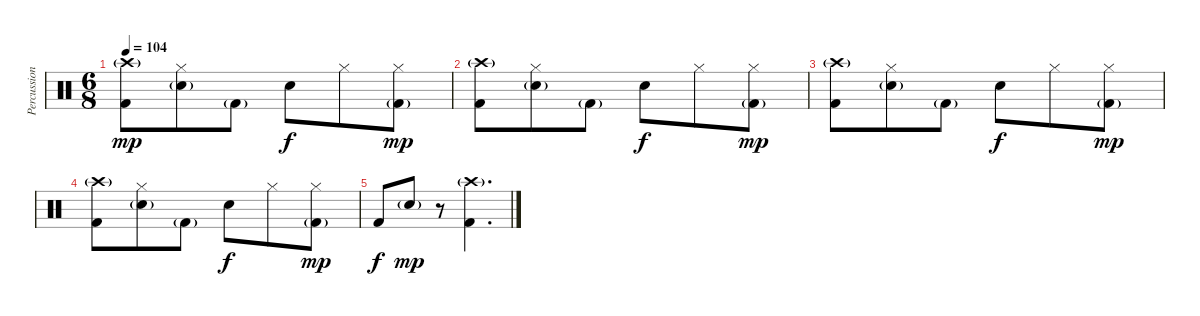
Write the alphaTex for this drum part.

\track ("Percussion" "Percussion") {instrument percussion}
\staff {score}
\articulation defaults
\ts (6 8)
\tempo 104
\clef neutral
\ks c
("Crash high (hit)"{g} "Kick (hit) 2").8{dy mp} ("Hi-Hat (closed)" "Snare (hit) 2"{g}).8 "Kick (hit) 2"{g}.8 "Snare (hit) 2".8{dy f} "Hi-Hat (closed)".8 ("Hi-Hat (closed)" "Kick (hit) 2"{g}).8{dy mp} |
("Crash high (hit)"{g} "Kick (hit) 2").8 ("Hi-Hat (closed)" "Snare (hit) 2"{g}).8 "Kick (hit) 2"{g}.8 "Snare (hit) 2".8{dy f} "Hi-Hat (closed)".8 ("Hi-Hat (closed)" "Kick (hit) 2"{g}).8{dy mp} |
("Crash high (hit)"{g} "Kick (hit) 2").8 ("Hi-Hat (closed)" "Snare (hit) 2"{g}).8 "Kick (hit) 2"{g}.8 "Snare (hit) 2".8{dy f} "Hi-Hat (closed)".8 ("Hi-Hat (closed)" "Kick (hit) 2"{g}).8{dy mp} |
("Crash high (hit)"{g} "Kick (hit) 2").8 ("Hi-Hat (closed)" "Snare (hit) 2"{g}).8 "Kick (hit) 2"{g}.8 "Snare (hit) 2".8{dy f} "Hi-Hat (closed)".8 ("Hi-Hat (closed)" "Kick (hit) 2"{g}).8{dy mp} |
"Kick (hit) 2".8{dy f} "Snare (hit) 2"{g}.8{dy mp} r.8 ("Crash high (hit)"{g} "Kick (hit) 2").4{d}
